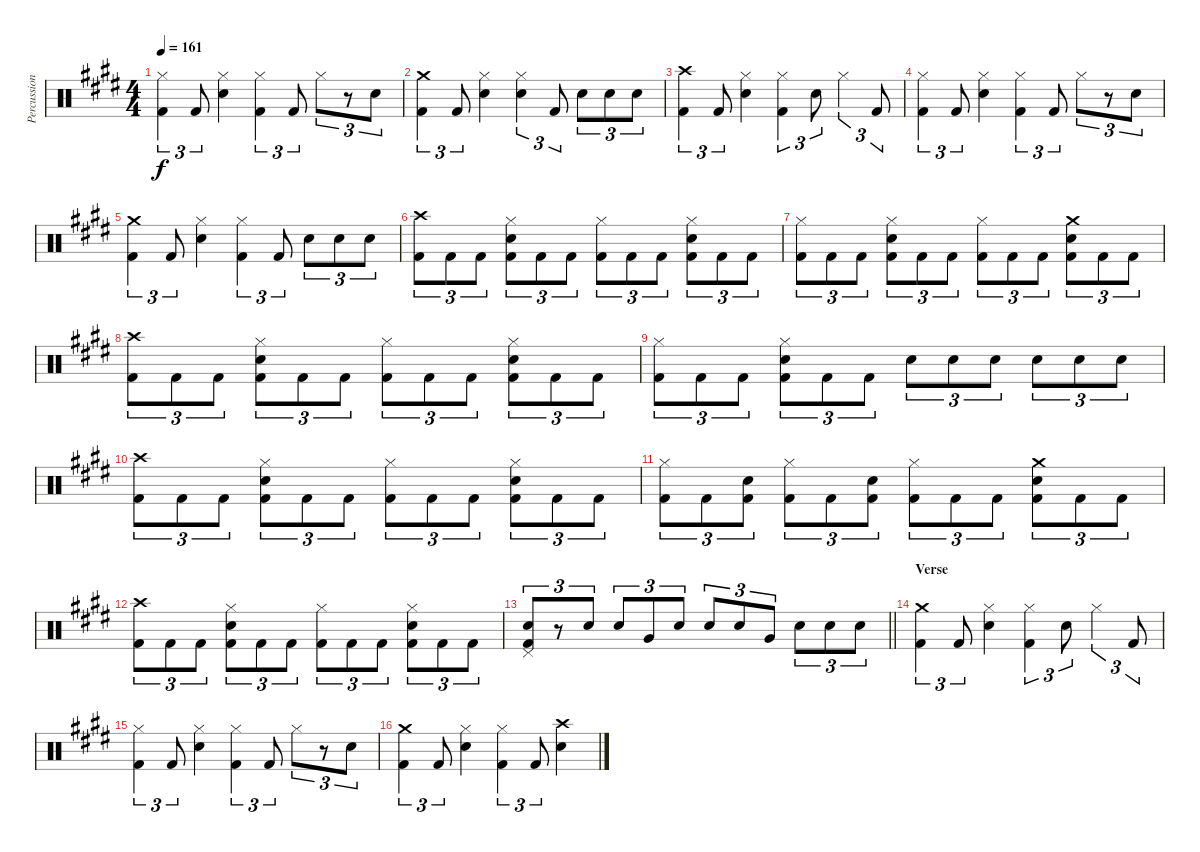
\track ("Percussion" "Percussion") {instrument percussion}
\staff {score}
\articulation defaults
\ts (4 4)
\tempo 161
\clef neutral
\ks e
("Hi-Hat (closed)" "Kick (hit) 2").4{tu (3 2) dy f} "Kick (hit) 2".8{tu (3 2)} ("Hi-Hat (closed)" "Snare (hit) 2").4 ("Hi-Hat (closed)" "Kick (hit) 2").4{tu (3 2)} "Kick (hit) 2".8{tu (3 2)} "Hi-Hat (closed)".8{tu (3 2)} r.8{tu (3 2)} "Snare (hit) 2".8{tu (3 2)} |
("Crash medium (hit)" "Kick (hit) 2").4{tu (3 2)} "Kick (hit) 2".8{tu (3 2)} ("Hi-Hat (closed)" "Snare (hit) 2").4 ("Hi-Hat (closed)" "Snare (hit) 2").4{tu (3 2)} "Kick (hit) 2".8{tu (3 2)} "Snare (hit) 2".8{tu (3 2)} "Snare (hit) 2".8{tu (3 2)} "Snare (hit) 2".8{tu (3 2)} |
("Crash high (hit)" "Kick (hit) 2").4{tu (3 2)} "Kick (hit) 2".8{tu (3 2)} ("Hi-Hat (closed)" "Snare (hit) 2").4 ("Hi-Hat (closed)" "Kick (hit) 2").4{tu (3 2)} "Snare (hit) 2".8{tu (3 2)} "Hi-Hat (closed)".4{tu (3 2)} "Kick (hit) 2".8{tu (3 2)} |
("Hi-Hat (closed)" "Kick (hit) 2").4{tu (3 2)} "Kick (hit) 2".8{tu (3 2)} ("Hi-Hat (closed)" "Snare (hit) 2").4 ("Hi-Hat (closed)" "Kick (hit) 2").4{tu (3 2)} "Kick (hit) 2".8{tu (3 2)} "Hi-Hat (closed)".8{tu (3 2)} r.8{tu (3 2)} "Snare (hit) 2".8{tu (3 2)} |
("Crash medium (hit)" "Kick (hit) 2").4{tu (3 2)} "Kick (hit) 2".8{tu (3 2)} ("Hi-Hat (closed)" "Snare (hit) 2").4 ("Hi-Hat (closed)" "Kick (hit) 2").4{tu (3 2)} "Kick (hit) 2".8{tu (3 2)} "Snare (hit) 2".8{tu (3 2)} "Snare (hit) 2".8{tu (3 2)} "Snare (hit) 2".8{tu (3 2)} |
("Crash high (hit)" "Kick (hit) 2").8{tu (3 2)} "Kick (hit) 2".8{tu (3 2)} "Kick (hit) 2".8{tu (3 2)} ("Hi-Hat (closed)" "Snare (hit) 2" "Kick (hit) 2").8{tu (3 2)} "Kick (hit) 2".8{tu (3 2)} "Kick (hit) 2".8{tu (3 2)} ("Hi-Hat (closed)" "Kick (hit) 2").8{tu (3 2)} "Kick (hit) 2".8{tu (3 2)} "Kick (hit) 2".8{tu (3 2)} ("Hi-Hat (closed)" "Snare (hit) 2" "Kick (hit) 2").8{tu (3 2)} "Kick (hit) 2".8{tu (3 2)} "Kick (hit) 2".8{tu (3 2)} |
("Hi-Hat (closed)" "Kick (hit) 2").8{tu (3 2)} "Kick (hit) 2".8{tu (3 2)} "Kick (hit) 2".8{tu (3 2)} ("Hi-Hat (closed)" "Snare (hit) 2" "Kick (hit) 2").8{tu (3 2)} "Kick (hit) 2".8{tu (3 2)} "Kick (hit) 2".8{tu (3 2)} ("Hi-Hat (closed)" "Kick (hit) 2").8{tu (3 2)} "Kick (hit) 2".8{tu (3 2)} "Kick (hit) 2".8{tu (3 2)} ("Crash medium (hit)" "Snare (hit) 2" "Kick (hit) 2").8{tu (3 2)} "Kick (hit) 2".8{tu (3 2)} "Kick (hit) 2".8{tu (3 2)} |
("Crash high (hit)" "Kick (hit) 2").8{tu (3 2)} "Kick (hit) 2".8{tu (3 2)} "Kick (hit) 2".8{tu (3 2)} ("Hi-Hat (closed)" "Snare (hit) 2" "Kick (hit) 2").8{tu (3 2)} "Kick (hit) 2".8{tu (3 2)} "Kick (hit) 2".8{tu (3 2)} ("Hi-Hat (closed)" "Kick (hit) 2").8{tu (3 2)} "Kick (hit) 2".8{tu (3 2)} "Kick (hit) 2".8{tu (3 2)} ("Hi-Hat (closed)" "Snare (hit) 2" "Kick (hit) 2").8{tu (3 2)} "Kick (hit) 2".8{tu (3 2)} "Kick (hit) 2".8{tu (3 2)} |
("Hi-Hat (closed)" "Kick (hit) 2").8{tu (3 2)} "Kick (hit) 2".8{tu (3 2)} "Kick (hit) 2".8{tu (3 2)} ("Hi-Hat (closed)" "Snare (hit) 2" "Kick (hit) 2").8{tu (3 2)} "Kick (hit) 2".8{tu (3 2)} "Kick (hit) 2".8{tu (3 2)} "Snare (hit) 2".8{tu (3 2)} "Snare (hit) 2".8{tu (3 2)} "Snare (hit) 2".8{tu (3 2)} "Snare (hit) 2".8{tu (3 2)} "Snare (hit) 2".8{tu (3 2)} "Snare (hit) 2".8{tu (3 2)} |
("Crash high (hit)" "Kick (hit) 2").8{tu (3 2)} "Kick (hit) 2".8{tu (3 2)} "Kick (hit) 2".8{tu (3 2)} ("Hi-Hat (closed)" "Snare (hit) 2" "Kick (hit) 2").8{tu (3 2)} "Kick (hit) 2".8{tu (3 2)} "Kick (hit) 2".8{tu (3 2)} ("Hi-Hat (closed)" "Kick (hit) 2").8{tu (3 2)} "Kick (hit) 2".8{tu (3 2)} "Kick (hit) 2".8{tu (3 2)} ("Hi-Hat (closed)" "Snare (hit) 2" "Kick (hit) 2").8{tu (3 2)} "Kick (hit) 2".8{tu (3 2)} "Kick (hit) 2".8{tu (3 2)} |
("Hi-Hat (closed)" "Kick (hit) 2").8{tu (3 2)} "Kick (hit) 2".8{tu (3 2)} ("Snare (hit) 2" "Kick (hit) 2").8{tu (3 2)} ("Hi-Hat (closed)" "Kick (hit) 2").8{tu (3 2)} "Kick (hit) 2".8{tu (3 2)} ("Snare (hit) 2" "Kick (hit) 2").8{tu (3 2)} ("Hi-Hat (closed)" "Kick (hit) 2").8{tu (3 2)} "Kick (hit) 2".8{tu (3 2)} "Kick (hit) 2".8{tu (3 2)} ("Crash medium (hit)" "Snare (hit) 2" "Kick (hit) 2").8{tu (3 2)} "Kick (hit) 2".8{tu (3 2)} "Kick (hit) 2".8{tu (3 2)} |
("Crash high (hit)" "Kick (hit) 2").8{tu (3 2)} "Kick (hit) 2".8{tu (3 2)} "Kick (hit) 2".8{tu (3 2)} ("Hi-Hat (closed)" "Snare (hit) 2" "Kick (hit) 2").8{tu (3 2)} "Kick (hit) 2".8{tu (3 2)} "Kick (hit) 2".8{tu (3 2)} ("Hi-Hat (closed)" "Kick (hit) 2").8{tu (3 2)} "Kick (hit) 2".8{tu (3 2)} "Kick (hit) 2".8{tu (3 2)} ("Hi-Hat (closed)" "Snare (hit) 2" "Kick (hit) 2").8{tu (3 2)} "Kick (hit) 2".8{tu (3 2)} "Kick (hit) 2".8{tu (3 2)} |
\barLineRight lightlight
("Pedal Hi-Hat (hit)" "Snare (hit) 2" "Kick (hit) 2").8{tu (3 2)} r.8{tu (3 2)} "Snare (hit) 2".8{tu (3 2)} "Snare (hit) 2".8{tu (3 2)} "Very Low Tom (hit)".8{tu (3 2)} "Snare (hit) 2".8{tu (3 2)} "Snare (hit) 2".8{tu (3 2)} "Snare (hit) 2".8{tu (3 2)} "Very Low Tom (hit)".8{tu (3 2)} "Snare (hit) 2".8{tu (3 2)} "Snare (hit) 2".8{tu (3 2)} "Snare (hit) 2".8{tu (3 2)} |
\section ("" "Verse")
("Crash medium (hit)" "Kick (hit) 2").4{tu (3 2)} "Kick (hit) 2".8{tu (3 2)} ("Hi-Hat (closed)" "Snare (hit) 2").4 ("Hi-Hat (closed)" "Kick (hit) 2").4{tu (3 2)} "Snare (hit) 2".8{tu (3 2)} "Hi-Hat (closed)".4{tu (3 2)} "Kick (hit) 2".8{tu (3 2)} |
("Hi-Hat (closed)" "Kick (hit) 2").4{tu (3 2)} "Kick (hit) 2".8{tu (3 2)} ("Hi-Hat (closed)" "Snare (hit) 2").4 ("Hi-Hat (closed)" "Kick (hit) 2").4{tu (3 2)} "Kick (hit) 2".8{tu (3 2)} "Hi-Hat (closed)".8{tu (3 2)} r.8{tu (3 2)} "Snare (hit) 2".8{tu (3 2)} |
("Crash medium (hit)" "Kick (hit) 2").4{tu (3 2)} "Kick (hit) 2".8{tu (3 2)} ("Hi-Hat (closed)" "Snare (hit) 2").4 ("Hi-Hat (closed)" "Kick (hit) 2").4{tu (3 2)} "Kick (hit) 2".8{tu (3 2)} ("Crash high (hit)" "Snare (hit) 2").4
